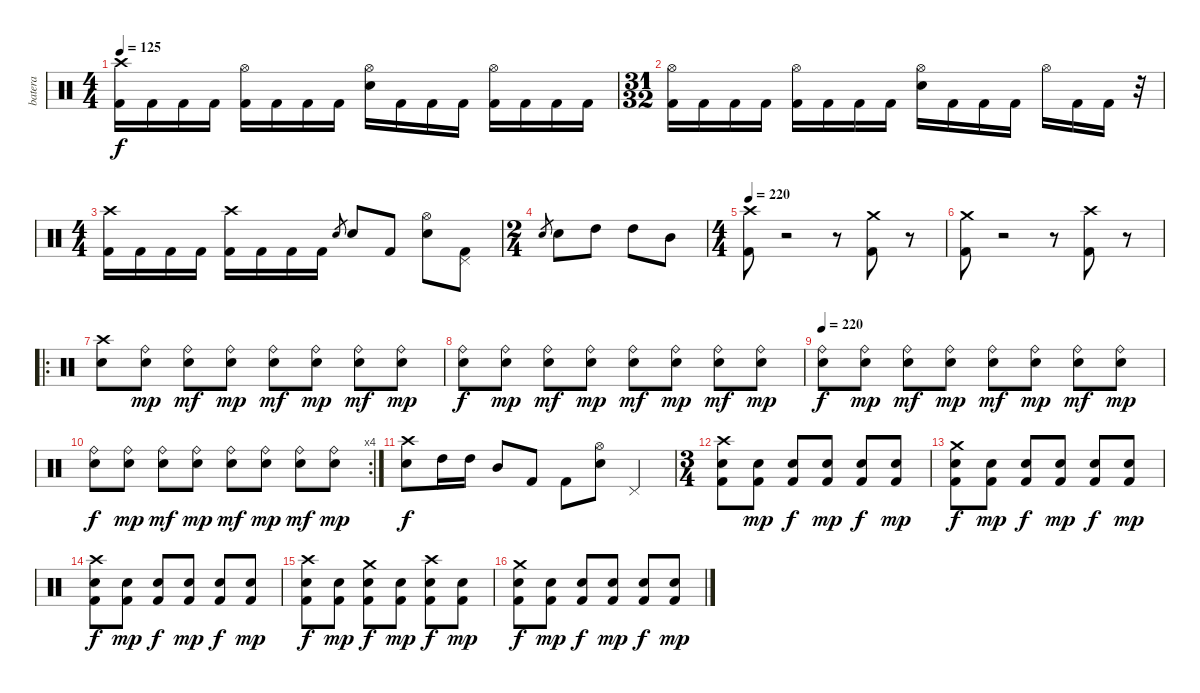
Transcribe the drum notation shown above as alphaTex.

\track ("batera" "batera") {instrument percussion}
\staff {score}
\articulation defaults
\ts (4 4)
\tempo 125
\clef neutral
\ks c
("Crash high (hit)" "Kick (hit) 2").16{dy f} "Kick (hit) 2".16 "Kick (hit) 2".16 "Kick (hit) 2".16 ("Hi-Hat (open)" "Kick (hit) 2").16 "Kick (hit) 2".16 "Kick (hit) 2".16 "Kick (hit) 2".16 ("Hi-Hat (open)" "Electric Snare (hit)").16 "Kick (hit) 2".16 "Kick (hit) 2".16 "Kick (hit) 2".16 ("Hi-Hat (open)" "Kick (hit) 2").16 "Kick (hit) 2".16 "Kick (hit) 2".16 "Kick (hit) 2".16 |
\ts (31 32)
("Hi-Hat (open)" "Kick (hit) 2").16 "Kick (hit) 2".16 "Kick (hit) 2".16 "Kick (hit) 2".16 ("Hi-Hat (open)" "Kick (hit) 2").16 "Kick (hit) 2".16 "Kick (hit) 2".16 "Kick (hit) 2".16 ("Hi-Hat (open)" "Electric Snare (hit)").16 "Kick (hit) 2".16 "Kick (hit) 2".16 "Kick (hit) 2".16 "Hi-Hat (open)".16 "Kick (hit) 2".16 "Kick (hit) 2".16 r.32 |
\ts (4 4)
("Crash high (hit)" "Kick (hit) 2").16 "Kick (hit) 2".16 "Kick (hit) 2".16 "Kick (hit) 2".16 ("Crash high (hit)" "Kick (hit) 2").16 "Kick (hit) 2".16 "Kick (hit) 2".16 "Kick (hit) 2".16 "Electric Snare (hit)".8{gr} "Electric Snare (hit)".8 "Kick (hit) 2".8 ("Hi-Hat (open)" "Electric Snare (hit)").8 ("Pedal Hi-Hat (hit)" "Kick (hit) 2").8 |
\ts (2 4)
"Electric Snare (hit)".8{gr} "Electric Snare (hit)".8 "High Tom (hit)".8 "High Tom (hit)".8 "Mid Tom (hit)".8 |
\ts (4 4)
\tempo 220
("Crash high (hit)" "Kick (hit) 2").8 r.2 r.8 ("Crash medium (hit)" "Kick (hit) 2").8 r.8 |
("Crash medium (hit)" "Kick (hit) 2").8 r.2 r.8 ("Crash high (hit)" "Kick (hit) 2").8 r.8 |
\ro
("Crash high (hit)" "Electric Snare (hit)").8 ("Ride (bell)" "Electric Snare (hit)").8{dy mp} ("Ride (bell)" "Electric Snare (hit)").8{dy mf} ("Ride (bell)" "Electric Snare (hit)").8{dy mp} ("Ride (bell)" "Electric Snare (hit)").8{dy mf} ("Ride (bell)" "Electric Snare (hit)").8{dy mp} ("Ride (bell)" "Electric Snare (hit)").8{dy mf} ("Ride (bell)" "Electric Snare (hit)").8{dy mp} |
("Ride (bell)" "Electric Snare (hit)").8{dy f} ("Ride (bell)" "Electric Snare (hit)").8{dy mp} ("Ride (bell)" "Electric Snare (hit)").8{dy mf} ("Ride (bell)" "Electric Snare (hit)").8{dy mp} ("Ride (bell)" "Electric Snare (hit)").8{dy mf} ("Ride (bell)" "Electric Snare (hit)").8{dy mp} ("Ride (bell)" "Electric Snare (hit)").8{dy mf} ("Ride (bell)" "Electric Snare (hit)").8{dy mp} |
\tempo 220
("Ride (bell)" "Electric Snare (hit)").8{dy f} ("Ride (bell)" "Electric Snare (hit)").8{dy mp} ("Ride (bell)" "Electric Snare (hit)").8{dy mf} ("Ride (bell)" "Electric Snare (hit)").8{dy mp} ("Ride (bell)" "Electric Snare (hit)").8{dy mf} ("Ride (bell)" "Electric Snare (hit)").8{dy mp} ("Ride (bell)" "Electric Snare (hit)").8{dy mf} ("Ride (bell)" "Electric Snare (hit)").8{dy mp} |
\rc 4
("Ride (bell)" "Electric Snare (hit)").8{dy f} ("Ride (bell)" "Electric Snare (hit)").8{dy mp} ("Ride (bell)" "Electric Snare (hit)").8{dy mf} ("Ride (bell)" "Electric Snare (hit)").8{dy mp} ("Ride (bell)" "Electric Snare (hit)").8{dy mf} ("Ride (bell)" "Electric Snare (hit)").8{dy mp} ("Ride (bell)" "Electric Snare (hit)").8{dy mf} ("Ride (bell)" "Electric Snare (hit)").8{dy mp} |
("Crash high (hit)" "Electric Snare (hit)").8{dy f} "High Tom (hit)".16 "High Tom (hit)".16 "Mid Tom (hit)".8 "Kick (hit) 2".8 "Kick (hit) 2".8 ("Hi-Hat (open)" "Electric Snare (hit)").8 "Pedal Hi-Hat (hit)".4 |
\ts (3 4)
("Crash high (hit)" "Electric Snare (hit)" "Kick (hit) 2").8 ("Electric Snare (hit)" "Kick (hit) 2").8{dy mp} ("Electric Snare (hit)" "Kick (hit) 2").8{dy f} ("Electric Snare (hit)" "Kick (hit) 2").8{dy mp} ("Electric Snare (hit)" "Kick (hit) 2").8{dy f} ("Electric Snare (hit)" "Kick (hit) 2").8{dy mp} |
("Crash medium (hit)" "Electric Snare (hit)" "Kick (hit) 2").8{dy f} ("Electric Snare (hit)" "Kick (hit) 2").8{dy mp} ("Electric Snare (hit)" "Kick (hit) 2").8{dy f} ("Electric Snare (hit)" "Kick (hit) 2").8{dy mp} ("Electric Snare (hit)" "Kick (hit) 2").8{dy f} ("Electric Snare (hit)" "Kick (hit) 2").8{dy mp} |
("Crash high (hit)" "Electric Snare (hit)" "Kick (hit) 2").8{dy f} ("Electric Snare (hit)" "Kick (hit) 2").8{dy mp} ("Electric Snare (hit)" "Kick (hit) 2").8{dy f} ("Electric Snare (hit)" "Kick (hit) 2").8{dy mp} ("Electric Snare (hit)" "Kick (hit) 2").8{dy f} ("Electric Snare (hit)" "Kick (hit) 2").8{dy mp} |
("Crash high (hit)" "Electric Snare (hit)" "Kick (hit) 2").8{dy f} ("Electric Snare (hit)" "Kick (hit) 2").8{dy mp} ("Crash medium (hit)" "Electric Snare (hit)" "Kick (hit) 2").8{dy f} ("Electric Snare (hit)" "Kick (hit) 2").8{dy mp} ("Crash high (hit)" "Electric Snare (hit)" "Kick (hit) 2").8{dy f} ("Electric Snare (hit)" "Kick (hit) 2").8{dy mp} |
("Crash medium (hit)" "Electric Snare (hit)" "Kick (hit) 2").8{dy f} ("Electric Snare (hit)" "Kick (hit) 2").8{dy mp} ("Electric Snare (hit)" "Kick (hit) 2").8{dy f} ("Electric Snare (hit)" "Kick (hit) 2").8{dy mp} ("Electric Snare (hit)" "Kick (hit) 2").8{dy f} ("Electric Snare (hit)" "Kick (hit) 2").8{dy mp}
